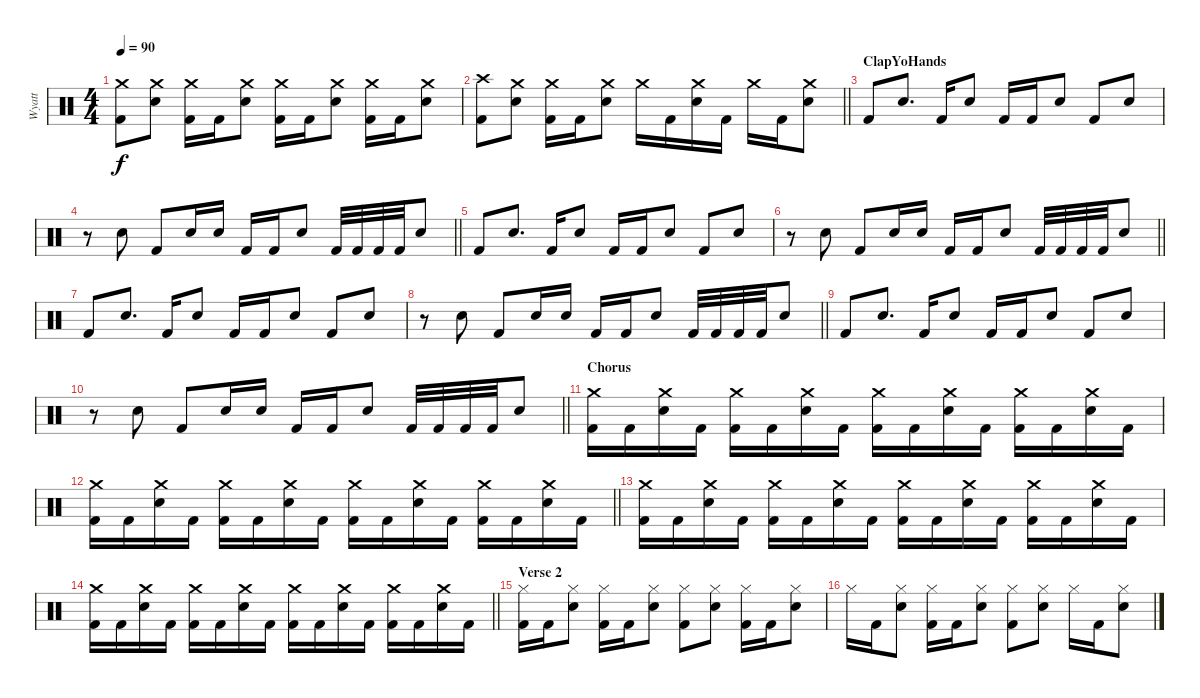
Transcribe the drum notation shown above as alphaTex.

\track ("Wyatt" "Wyatt") {instrument percussion}
\staff {score}
\articulation defaults
\ts (4 4)
\tempo 90
\clef neutral
\ks c
("Crash medium (hit)" "Kick (hit) 2").8{dy f} ("Crash medium (hit)" "Electric Snare (hit)").8 ("Crash medium (hit)" "Kick (hit) 2").16 "Kick (hit) 2".16 ("Crash medium (hit)" "Electric Snare (hit)").8 ("Crash medium (hit)" "Kick (hit) 2").16 "Kick (hit) 2".16 ("Crash medium (hit)" "Electric Snare (hit)").8 ("Crash medium (hit)" "Kick (hit) 2").16 "Kick (hit) 2".16 ("Crash medium (hit)" "Electric Snare (hit)").8 |
\barLineRight lightlight
("Crash high (hit)" "Kick (hit) 2").8 ("Crash medium (hit)" "Electric Snare (hit)").8 ("Crash medium (hit)" "Kick (hit) 2").16 "Kick (hit) 2".16 ("Crash medium (hit)" "Electric Snare (hit)").8 "Crash medium (hit)".16 "Kick (hit) 2".16 ("Crash medium (hit)" "Electric Snare (hit)").16 "Kick (hit) 2".16 "Crash medium (hit)".16 "Kick (hit) 2".16 ("Crash medium (hit)" "Electric Snare (hit)").8 |
\section ("" "ClapYoHands")
"Kick (hit) 2".8 "Hand Clap (hit)".8{d} "Kick (hit) 2".16 "Hand Clap (hit)".8 "Kick (hit) 2".16 "Kick (hit) 2".16 "Hand Clap (hit)".8 "Kick (hit) 2".8 "Hand Clap (hit)".8 |
\barLineRight lightlight
r.8 "Hand Clap (hit)".8 "Kick (hit) 2".8 "Hand Clap (hit)".16 "Hand Clap (hit)".16 "Kick (hit) 2".16 "Kick (hit) 2".16 "Hand Clap (hit)".8 "Kick (hit) 2".32 "Kick (hit) 2".32 "Kick (hit) 2".32 "Kick (hit) 2".32 "Hand Clap (hit)".8 |
"Kick (hit) 2".8 "Hand Clap (hit)".8{d} "Kick (hit) 2".16 "Hand Clap (hit)".8 "Kick (hit) 2".16 "Kick (hit) 2".16 "Hand Clap (hit)".8 "Kick (hit) 2".8 "Hand Clap (hit)".8 |
\barLineRight lightlight
r.8 "Hand Clap (hit)".8 "Kick (hit) 2".8 "Hand Clap (hit)".16 "Hand Clap (hit)".16 "Kick (hit) 2".16 "Kick (hit) 2".16 "Hand Clap (hit)".8 "Kick (hit) 2".32 "Kick (hit) 2".32 "Kick (hit) 2".32 "Kick (hit) 2".32 "Hand Clap (hit)".8 |
"Kick (hit) 2".8 "Hand Clap (hit)".8{d} "Kick (hit) 2".16 "Hand Clap (hit)".8 "Kick (hit) 2".16 "Kick (hit) 2".16 "Hand Clap (hit)".8 "Kick (hit) 2".8 "Hand Clap (hit)".8 |
\barLineRight lightlight
r.8 "Hand Clap (hit)".8 "Kick (hit) 2".8 "Hand Clap (hit)".16 "Hand Clap (hit)".16 "Kick (hit) 2".16 "Kick (hit) 2".16 "Hand Clap (hit)".8 "Kick (hit) 2".32 "Kick (hit) 2".32 "Kick (hit) 2".32 "Kick (hit) 2".32 "Hand Clap (hit)".8 |
"Kick (hit) 2".8 "Hand Clap (hit)".8{d} "Kick (hit) 2".16 "Hand Clap (hit)".8 "Kick (hit) 2".16 "Kick (hit) 2".16 "Hand Clap (hit)".8 "Kick (hit) 2".8 "Hand Clap (hit)".8 |
\barLineRight lightlight
r.8 "Hand Clap (hit)".8 "Kick (hit) 2".8 "Hand Clap (hit)".16 "Hand Clap (hit)".16 "Kick (hit) 2".16 "Kick (hit) 2".16 "Hand Clap (hit)".8 "Kick (hit) 2".32 "Kick (hit) 2".32 "Kick (hit) 2".32 "Kick (hit) 2".32 "Hand Clap (hit)".8 |
\section ("" "Chorus")
("Crash medium (hit)" "Kick (hit) 2").16 "Kick (hit) 2".16 ("Crash medium (hit)" "Electric Snare (hit)").16 "Kick (hit) 2".16 ("Crash medium (hit)" "Kick (hit) 2").16 "Kick (hit) 2".16 ("Crash medium (hit)" "Electric Snare (hit)").16 "Kick (hit) 2".16 ("Crash medium (hit)" "Kick (hit) 2").16 "Kick (hit) 2".16 ("Crash medium (hit)" "Electric Snare (hit)").16 "Kick (hit) 2".16 ("Crash medium (hit)" "Kick (hit) 2").16 "Kick (hit) 2".16 ("Crash medium (hit)" "Electric Snare (hit)").16 "Kick (hit) 2".16 |
\barLineRight lightlight
("Crash medium (hit)" "Kick (hit) 2").16 "Kick (hit) 2".16 ("Crash medium (hit)" "Electric Snare (hit)").16 "Kick (hit) 2".16 ("Crash medium (hit)" "Kick (hit) 2").16 "Kick (hit) 2".16 ("Crash medium (hit)" "Electric Snare (hit)").16 "Kick (hit) 2".16 ("Crash medium (hit)" "Kick (hit) 2").16 "Kick (hit) 2".16 ("Crash medium (hit)" "Electric Snare (hit)").16 "Kick (hit) 2".16 ("Crash medium (hit)" "Kick (hit) 2").16 "Kick (hit) 2".16 ("Crash medium (hit)" "Electric Snare (hit)").16 "Kick (hit) 2".16 |
("Crash medium (hit)" "Kick (hit) 2").16 "Kick (hit) 2".16 ("Crash medium (hit)" "Electric Snare (hit)").16 "Kick (hit) 2".16 ("Crash medium (hit)" "Kick (hit) 2").16 "Kick (hit) 2".16 ("Crash medium (hit)" "Electric Snare (hit)").16 "Kick (hit) 2".16 ("Crash medium (hit)" "Kick (hit) 2").16 "Kick (hit) 2".16 ("Crash medium (hit)" "Electric Snare (hit)").16 "Kick (hit) 2".16 ("Crash medium (hit)" "Kick (hit) 2").16 "Kick (hit) 2".16 ("Crash medium (hit)" "Electric Snare (hit)").16 "Kick (hit) 2".16 |
\barLineRight lightlight
("Crash medium (hit)" "Kick (hit) 2").16 "Kick (hit) 2".16 ("Crash medium (hit)" "Electric Snare (hit)").16 "Kick (hit) 2".16 ("Crash medium (hit)" "Kick (hit) 2").16 "Kick (hit) 2".16 ("Crash medium (hit)" "Electric Snare (hit)").16 "Kick (hit) 2".16 ("Crash medium (hit)" "Kick (hit) 2").16 "Kick (hit) 2".16 ("Crash medium (hit)" "Electric Snare (hit)").16 "Kick (hit) 2".16 ("Crash medium (hit)" "Kick (hit) 2").16 "Kick (hit) 2".16 ("Crash medium (hit)" "Electric Snare (hit)").16 "Kick (hit) 2".16 |
\section ("" "Verse 2")
("Hi-Hat (closed)" "Kick (hit) 2").16 "Kick (hit) 2".16 ("Hi-Hat (closed)" "Electric Snare (hit)").8 ("Hi-Hat (closed)" "Kick (hit) 2").16 "Kick (hit) 2".16 ("Hi-Hat (closed)" "Electric Snare (hit)").8 ("Hi-Hat (closed)" "Kick (hit) 2").8 ("Hi-Hat (closed)" "Electric Snare (hit)").8 ("Hi-Hat (closed)" "Kick (hit) 2").16 "Kick (hit) 2".16 ("Hi-Hat (closed)" "Electric Snare (hit)").8 |
"Hi-Hat (closed)".16 "Kick (hit) 2".16 ("Hi-Hat (closed)" "Electric Snare (hit)").8 ("Hi-Hat (closed)" "Kick (hit) 2").16 "Kick (hit) 2".16 ("Hi-Hat (closed)" "Electric Snare (hit)").8 ("Hi-Hat (closed)" "Kick (hit) 2").8 ("Hi-Hat (closed)" "Electric Snare (hit)").8 "Hi-Hat (closed)".16 "Kick (hit) 2".16 ("Hi-Hat (closed)" "Electric Snare (hit)").8
